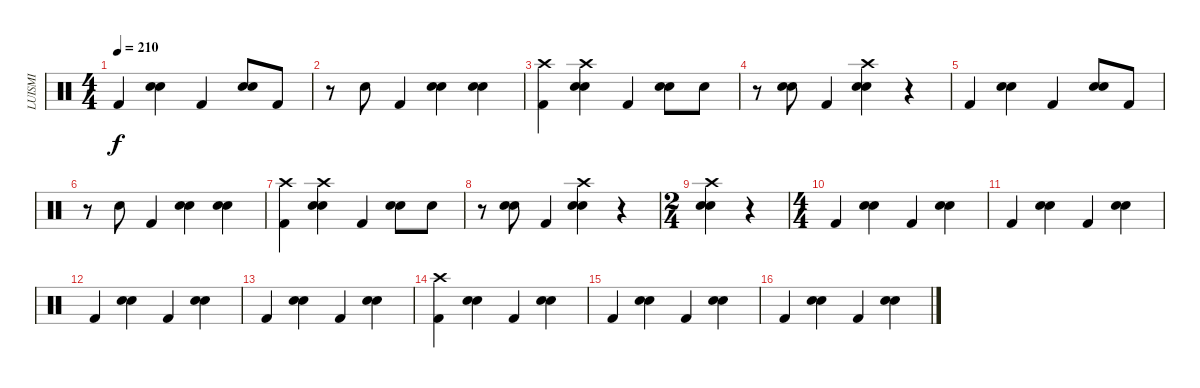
\track ("LUISMI" "LUISMI") {instrument percussion}
\staff {score}
\articulation defaults
\ts (4 4)
\tempo 210
\clef neutral
\ks c "Kick (hit) 2".4{dy f}
("Electric Snare (hit)" "Snare (hit) 2").4 "Kick (hit) 2".4 ("Electric Snare (hit)" "Snare (hit) 2").8 "Kick (hit) 2".8 |
r.8 "Electric Snare (hit)".8 "Kick (hit) 2".4 ("Electric Snare (hit)" "Snare (hit) 2").4 ("Electric Snare (hit)" "Snare (hit) 2").4 |
("Crash high (hit)" "Kick (hit) 2").4 ("Crash high (hit)" "Electric Snare (hit)" "Snare (hit) 2").4 "Kick (hit) 2".4 ("Electric Snare (hit)" "Snare (hit) 2").8 "Snare (hit) 2".8 |
r.8 ("Electric Snare (hit)" "Snare (hit) 2").8 "Kick (hit) 2".4 ("Crash high (hit)" "Electric Snare (hit)" "Snare (hit) 2").4 r.4 |
"Kick (hit) 2".4 ("Electric Snare (hit)" "Snare (hit) 2").4 "Kick (hit) 2".4 ("Electric Snare (hit)" "Snare (hit) 2").8 "Kick (hit) 2".8 |
r.8 "Electric Snare (hit)".8 "Kick (hit) 2".4 ("Electric Snare (hit)" "Snare (hit) 2").4 ("Electric Snare (hit)" "Snare (hit) 2").4 |
("Crash high (hit)" "Kick (hit) 2").4 ("Crash high (hit)" "Electric Snare (hit)" "Snare (hit) 2").4 "Kick (hit) 2".4 ("Electric Snare (hit)" "Snare (hit) 2").8 "Snare (hit) 2".8 |
r.8 ("Electric Snare (hit)" "Snare (hit) 2").8 "Kick (hit) 2".4 ("Crash high (hit)" "Electric Snare (hit)" "Snare (hit) 2").4 r.4 |
\ts (2 4)
("Crash high (hit)" "Electric Snare (hit)" "Snare (hit) 2").4 r.4 |
\ts (4 4)
"Kick (hit) 2".4 ("Electric Snare (hit)" "Snare (hit) 2").4 "Kick (hit) 2".4 ("Electric Snare (hit)" "Snare (hit) 2").4 |
"Kick (hit) 2".4 ("Electric Snare (hit)" "Snare (hit) 2").4 "Kick (hit) 2".4 ("Electric Snare (hit)" "Snare (hit) 2").4 |
"Kick (hit) 2".4 ("Snare (hit) 2" "Electric Snare (hit)").4 "Kick (hit) 2".4 ("Electric Snare (hit)" "Snare (hit) 2").4 |
"Kick (hit) 2".4 ("Electric Snare (hit)" "Snare (hit) 2").4 "Kick (hit) 2".4 ("Electric Snare (hit)" "Snare (hit) 2").4 |
("Crash high (hit)" "Kick (hit) 2").4 ("Electric Snare (hit)" "Snare (hit) 2").4 "Kick (hit) 2".4 ("Electric Snare (hit)" "Snare (hit) 2").4 |
"Kick (hit) 2".4 ("Electric Snare (hit)" "Snare (hit) 2").4 "Kick (hit) 2".4 ("Electric Snare (hit)" "Snare (hit) 2").4 |
"Kick (hit) 2".4 ("Snare (hit) 2" "Electric Snare (hit)").4 "Kick (hit) 2".4 ("Electric Snare (hit)" "Snare (hit) 2").4
